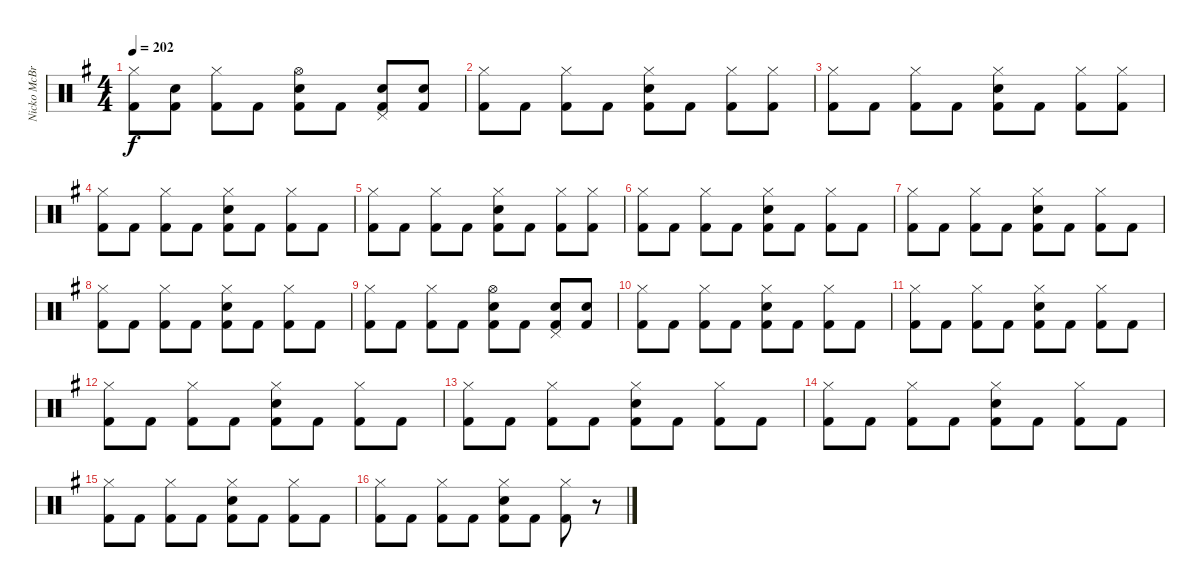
\track ("Nicko McBrain (Drums)" "Nicko McBr") {instrument percussion}
\staff {score}
\articulation defaults
\ts (4 4)
\tempo 202
\clef neutral
\ks eminor
("Hi-Hat (closed)" "Kick (hit) 2").8{dy f} ("Snare (hit) 2" "Kick (hit) 2").8 ("Hi-Hat (closed)" "Kick (hit) 2").8 "Kick (hit) 2".8 ("Hi-Hat (open)" "Snare (hit) 2" "Kick (hit) 2").8 "Kick (hit) 2".8 ("Pedal Hi-Hat (hit)" "Snare (hit) 2" "Kick (hit) 2").8 ("Snare (hit) 2" "Kick (hit) 2").8 |
("Hi-Hat (closed)" "Kick (hit) 2").8 "Kick (hit) 2".8 ("Hi-Hat (closed)" "Kick (hit) 2").8 "Kick (hit) 2".8 ("Hi-Hat (closed)" "Snare (hit) 2" "Kick (hit) 2").8 "Kick (hit) 2".8 ("Hi-Hat (closed)" "Kick (hit) 2").8 ("Hi-Hat (closed)" "Kick (hit) 2").8 |
("Hi-Hat (closed)" "Kick (hit) 2").8 "Kick (hit) 2".8 ("Hi-Hat (closed)" "Kick (hit) 2").8 "Kick (hit) 2".8 ("Hi-Hat (closed)" "Snare (hit) 2" "Kick (hit) 2").8 "Kick (hit) 2".8 ("Hi-Hat (closed)" "Kick (hit) 2").8 ("Hi-Hat (closed)" "Kick (hit) 2").8 |
("Hi-Hat (closed)" "Kick (hit) 2").8 "Kick (hit) 2".8 ("Hi-Hat (closed)" "Kick (hit) 2").8 "Kick (hit) 2".8 ("Hi-Hat (closed)" "Snare (hit) 2" "Kick (hit) 2").8 "Kick (hit) 2".8 ("Hi-Hat (closed)" "Kick (hit) 2").8 "Kick (hit) 2".8 |
("Hi-Hat (closed)" "Kick (hit) 2").8 "Kick (hit) 2".8 ("Hi-Hat (closed)" "Kick (hit) 2").8 "Kick (hit) 2".8 ("Hi-Hat (closed)" "Snare (hit) 2" "Kick (hit) 2").8 "Kick (hit) 2".8 ("Hi-Hat (closed)" "Kick (hit) 2").8 ("Hi-Hat (closed)" "Kick (hit) 2").8 |
("Hi-Hat (closed)" "Kick (hit) 2").8 "Kick (hit) 2".8 ("Hi-Hat (closed)" "Kick (hit) 2").8 "Kick (hit) 2".8 ("Hi-Hat (closed)" "Snare (hit) 2" "Kick (hit) 2").8 "Kick (hit) 2".8 ("Hi-Hat (closed)" "Kick (hit) 2").8 "Kick (hit) 2".8 |
("Hi-Hat (closed)" "Kick (hit) 2").8 "Kick (hit) 2".8 ("Hi-Hat (closed)" "Kick (hit) 2").8 "Kick (hit) 2".8 ("Hi-Hat (closed)" "Snare (hit) 2" "Kick (hit) 2").8 "Kick (hit) 2".8 ("Hi-Hat (closed)" "Kick (hit) 2").8 "Kick (hit) 2".8 |
("Hi-Hat (closed)" "Kick (hit) 2").8 "Kick (hit) 2".8 ("Hi-Hat (closed)" "Kick (hit) 2").8 "Kick (hit) 2".8 ("Hi-Hat (closed)" "Snare (hit) 2" "Kick (hit) 2").8 "Kick (hit) 2".8 ("Hi-Hat (closed)" "Kick (hit) 2").8 "Kick (hit) 2".8 |
("Hi-Hat (closed)" "Kick (hit) 2").8 "Kick (hit) 2".8 ("Hi-Hat (closed)" "Kick (hit) 2").8 "Kick (hit) 2".8 ("Hi-Hat (open)" "Snare (hit) 2" "Kick (hit) 2").8 "Kick (hit) 2".8 ("Pedal Hi-Hat (hit)" "Snare (hit) 2" "Kick (hit) 2").8 ("Snare (hit) 2" "Kick (hit) 2").8 |
("Hi-Hat (closed)" "Kick (hit) 2").8 "Kick (hit) 2".8 ("Hi-Hat (closed)" "Kick (hit) 2").8 "Kick (hit) 2".8 ("Hi-Hat (closed)" "Snare (hit) 2" "Kick (hit) 2").8 "Kick (hit) 2".8 ("Hi-Hat (closed)" "Kick (hit) 2").8 "Kick (hit) 2".8 |
("Hi-Hat (closed)" "Kick (hit) 2").8 "Kick (hit) 2".8 ("Hi-Hat (closed)" "Kick (hit) 2").8 "Kick (hit) 2".8 ("Hi-Hat (closed)" "Snare (hit) 2" "Kick (hit) 2").8 "Kick (hit) 2".8 ("Hi-Hat (closed)" "Kick (hit) 2").8 "Kick (hit) 2".8 |
("Hi-Hat (closed)" "Kick (hit) 2").8 "Kick (hit) 2".8 ("Hi-Hat (closed)" "Kick (hit) 2").8 "Kick (hit) 2".8 ("Hi-Hat (closed)" "Snare (hit) 2" "Kick (hit) 2").8 "Kick (hit) 2".8 ("Hi-Hat (closed)" "Kick (hit) 2").8 "Kick (hit) 2".8 |
("Hi-Hat (closed)" "Kick (hit) 2").8 "Kick (hit) 2".8 ("Hi-Hat (closed)" "Kick (hit) 2").8 "Kick (hit) 2".8 ("Hi-Hat (closed)" "Snare (hit) 2" "Kick (hit) 2").8 "Kick (hit) 2".8 ("Hi-Hat (closed)" "Kick (hit) 2").8 "Kick (hit) 2".8 |
("Hi-Hat (closed)" "Kick (hit) 2").8 "Kick (hit) 2".8 ("Hi-Hat (closed)" "Kick (hit) 2").8 "Kick (hit) 2".8 ("Hi-Hat (closed)" "Snare (hit) 2" "Kick (hit) 2").8 "Kick (hit) 2".8 ("Hi-Hat (closed)" "Kick (hit) 2").8 "Kick (hit) 2".8 |
("Hi-Hat (closed)" "Kick (hit) 2").8 "Kick (hit) 2".8 ("Hi-Hat (closed)" "Kick (hit) 2").8 "Kick (hit) 2".8 ("Hi-Hat (closed)" "Snare (hit) 2" "Kick (hit) 2").8 "Kick (hit) 2".8 ("Hi-Hat (closed)" "Kick (hit) 2").8 "Kick (hit) 2".8 |
("Hi-Hat (closed)" "Kick (hit) 2").8 "Kick (hit) 2".8 ("Hi-Hat (closed)" "Kick (hit) 2").8 "Kick (hit) 2".8 ("Hi-Hat (closed)" "Snare (hit) 2" "Kick (hit) 2").8 "Kick (hit) 2".8 ("Hi-Hat (closed)" "Kick (hit) 2").8 r.8
